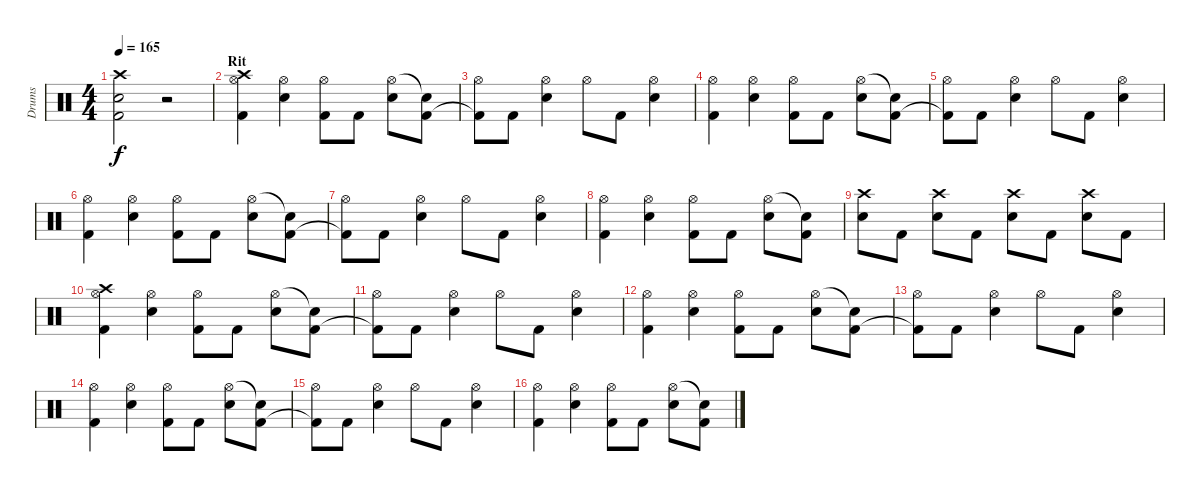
\track ("Drums" "Drums") {instrument percussion}
\staff {score}
\articulation defaults
\ts (4 4)
\tempo 165
\clef neutral
\ks c
("Crash high (hit)" "Snare (hit) 2" "Kick (hit) 2").2{dy f} r.2 |
\section ("" "Rit")
("Crash high (hit)" "Hi-Hat (open)" "Kick (hit) 2").4 ("Hi-Hat (open)" "Snare (hit) 2").4 ("Hi-Hat (open)" "Kick (hit) 2").8 "Kick (hit) 2".8 ("Hi-Hat (open)" "Snare (hit) 2").8 ("Snare (hit) 2"{t} "Kick (hit) 2").8 |
("Hi-Hat (open)" "Kick (hit) 2"{t}).8 "Kick (hit) 2".8 ("Hi-Hat (open)" "Snare (hit) 2").4 "Hi-Hat (open)".8 "Kick (hit) 2".8 ("Hi-Hat (open)" "Snare (hit) 2").4 |
("Hi-Hat (open)" "Kick (hit) 2").4 ("Hi-Hat (open)" "Snare (hit) 2").4 ("Hi-Hat (open)" "Kick (hit) 2").8 "Kick (hit) 2".8 ("Hi-Hat (open)" "Snare (hit) 2").8 ("Snare (hit) 2"{t} "Kick (hit) 2").8 |
("Hi-Hat (open)" "Kick (hit) 2"{t}).8 "Kick (hit) 2".8 ("Hi-Hat (open)" "Snare (hit) 2").4 "Hi-Hat (open)".8 "Kick (hit) 2".8 ("Hi-Hat (open)" "Snare (hit) 2").4 |
("Hi-Hat (open)" "Kick (hit) 2").4 ("Hi-Hat (open)" "Snare (hit) 2").4 ("Hi-Hat (open)" "Kick (hit) 2").8 "Kick (hit) 2".8 ("Hi-Hat (open)" "Snare (hit) 2").8 ("Snare (hit) 2"{t} "Kick (hit) 2").8 |
("Hi-Hat (open)" "Kick (hit) 2"{t}).8 "Kick (hit) 2".8 ("Hi-Hat (open)" "Snare (hit) 2").4 "Hi-Hat (open)".8 "Kick (hit) 2".8 ("Hi-Hat (open)" "Snare (hit) 2").4 |
("Hi-Hat (open)" "Kick (hit) 2").4 ("Hi-Hat (open)" "Snare (hit) 2").4 ("Hi-Hat (open)" "Kick (hit) 2").8 "Kick (hit) 2".8 ("Hi-Hat (open)" "Snare (hit) 2").8 ("Snare (hit) 2"{t} "Kick (hit) 2").8 |
("Crash high (hit)" "Snare (hit) 2").8 "Kick (hit) 2".8 ("Crash high (hit)" "Snare (hit) 2").8 "Kick (hit) 2".8 ("Crash high (hit)" "Snare (hit) 2").8 "Kick (hit) 2".8 ("Crash high (hit)" "Snare (hit) 2").8 "Kick (hit) 2".8 |
("Crash high (hit)" "Hi-Hat (open)" "Kick (hit) 2").4 ("Hi-Hat (open)" "Snare (hit) 2").4 ("Hi-Hat (open)" "Kick (hit) 2").8 "Kick (hit) 2".8 ("Hi-Hat (open)" "Snare (hit) 2").8 ("Snare (hit) 2"{t} "Kick (hit) 2").8 |
("Hi-Hat (open)" "Kick (hit) 2"{t}).8 "Kick (hit) 2".8 ("Hi-Hat (open)" "Snare (hit) 2").4 "Hi-Hat (open)".8 "Kick (hit) 2".8 ("Hi-Hat (open)" "Snare (hit) 2").4 |
("Hi-Hat (open)" "Kick (hit) 2").4 ("Hi-Hat (open)" "Snare (hit) 2").4 ("Hi-Hat (open)" "Kick (hit) 2").8 "Kick (hit) 2".8 ("Hi-Hat (open)" "Snare (hit) 2").8 ("Snare (hit) 2"{t} "Kick (hit) 2").8 |
("Hi-Hat (open)" "Kick (hit) 2"{t}).8 "Kick (hit) 2".8 ("Hi-Hat (open)" "Snare (hit) 2").4 "Hi-Hat (open)".8 "Kick (hit) 2".8 ("Hi-Hat (open)" "Snare (hit) 2").4 |
("Hi-Hat (open)" "Kick (hit) 2").4 ("Hi-Hat (open)" "Snare (hit) 2").4 ("Hi-Hat (open)" "Kick (hit) 2").8 "Kick (hit) 2".8 ("Hi-Hat (open)" "Snare (hit) 2").8 ("Snare (hit) 2"{t} "Kick (hit) 2").8 |
("Hi-Hat (open)" "Kick (hit) 2"{t}).8 "Kick (hit) 2".8 ("Hi-Hat (open)" "Snare (hit) 2").4 "Hi-Hat (open)".8 "Kick (hit) 2".8 ("Hi-Hat (open)" "Snare (hit) 2").4 |
("Hi-Hat (open)" "Kick (hit) 2").4 ("Hi-Hat (open)" "Snare (hit) 2").4 ("Hi-Hat (open)" "Kick (hit) 2").8 "Kick (hit) 2".8 ("Hi-Hat (open)" "Snare (hit) 2").8 ("Snare (hit) 2"{t} "Kick (hit) 2").8
